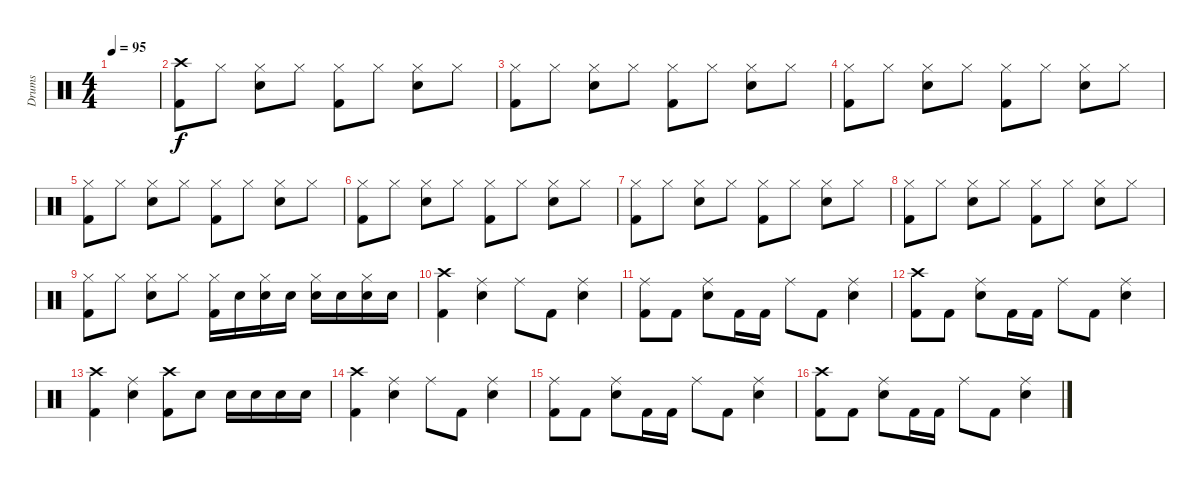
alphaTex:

\track ("Drums" "Drums") {instrument percussion}
\staff {score}
\articulation defaults
\ts (4 4)
\tempo 95
\clef neutral
\ks c
|
("Crash high (hit)" "Kick (hit) 2").8 "Hi-Hat (closed)".8 ("Hi-Hat (closed)" "Snare (hit) 2").8 "Hi-Hat (closed)".8 ("Hi-Hat (closed)" "Kick (hit) 2").8 "Hi-Hat (closed)".8 ("Hi-Hat (closed)" "Snare (hit) 2").8 "Hi-Hat (closed)".8 |
("Hi-Hat (closed)" "Kick (hit) 2").8 "Hi-Hat (closed)".8 ("Hi-Hat (closed)" "Snare (hit) 2").8 "Hi-Hat (closed)".8 ("Hi-Hat (closed)" "Kick (hit) 2").8 "Hi-Hat (closed)".8 ("Hi-Hat (closed)" "Snare (hit) 2").8 "Hi-Hat (closed)".8 |
("Hi-Hat (closed)" "Kick (hit) 2").8 "Hi-Hat (closed)".8 ("Hi-Hat (closed)" "Snare (hit) 2").8 "Hi-Hat (closed)".8 ("Hi-Hat (closed)" "Kick (hit) 2").8 "Hi-Hat (closed)".8 ("Hi-Hat (closed)" "Snare (hit) 2").8 "Hi-Hat (closed)".8 |
("Hi-Hat (closed)" "Kick (hit) 2").8 "Hi-Hat (closed)".8 ("Hi-Hat (closed)" "Snare (hit) 2").8 "Hi-Hat (closed)".8 ("Hi-Hat (closed)" "Kick (hit) 2").8 "Hi-Hat (closed)".8 ("Hi-Hat (closed)" "Snare (hit) 2").8 "Hi-Hat (closed)".8 |
("Hi-Hat (closed)" "Kick (hit) 2").8 "Hi-Hat (closed)".8 ("Hi-Hat (closed)" "Snare (hit) 2").8 "Hi-Hat (closed)".8 ("Hi-Hat (closed)" "Kick (hit) 2").8 "Hi-Hat (closed)".8 ("Hi-Hat (closed)" "Snare (hit) 2").8 "Hi-Hat (closed)".8 |
("Hi-Hat (closed)" "Kick (hit) 2").8 "Hi-Hat (closed)".8 ("Hi-Hat (closed)" "Snare (hit) 2").8 "Hi-Hat (closed)".8 ("Hi-Hat (closed)" "Kick (hit) 2").8 "Hi-Hat (closed)".8 ("Hi-Hat (closed)" "Snare (hit) 2").8 "Hi-Hat (closed)".8 |
("Hi-Hat (closed)" "Kick (hit) 2").8 "Hi-Hat (closed)".8 ("Hi-Hat (closed)" "Snare (hit) 2").8 "Hi-Hat (closed)".8 ("Hi-Hat (closed)" "Kick (hit) 2").8 "Hi-Hat (closed)".8 ("Hi-Hat (closed)" "Snare (hit) 2").8 "Hi-Hat (closed)".8 |
("Hi-Hat (closed)" "Kick (hit) 2").8 "Hi-Hat (closed)".8 ("Hi-Hat (closed)" "Snare (hit) 2").8 "Hi-Hat (closed)".8 ("Hi-Hat (closed)" "Kick (hit) 2").16 "Snare (hit) 2".16 ("Hi-Hat (closed)" "Snare (hit) 2").16 "Snare (hit) 2".16 ("Hi-Hat (closed)" "Snare (hit) 2").16 "Snare (hit) 2".16 ("Hi-Hat (closed)" "Snare (hit) 2").16 "Snare (hit) 2".16 |
("Crash high (hit)" "Kick (hit) 2").4 ("Ride (middle)" "Snare (hit) 2").4 "Ride (middle)".8 "Kick (hit) 2".8 ("Ride (middle)" "Snare (hit) 2").4 |
("Ride (middle)" "Kick (hit) 2").8 "Kick (hit) 2".8 ("Ride (middle)" "Snare (hit) 2").8 "Kick (hit) 2".16 "Kick (hit) 2".16 "Ride (middle)".8 "Kick (hit) 2".8 ("Ride (middle)" "Snare (hit) 2").4 |
("Crash high (hit)" "Kick (hit) 2").8 "Kick (hit) 2".8 ("Ride (middle)" "Snare (hit) 2").8 "Kick (hit) 2".16 "Kick (hit) 2".16 "Ride (middle)".8 "Kick (hit) 2".8 ("Ride (middle)" "Snare (hit) 2").4 |
("Crash high (hit)" "Kick (hit) 2").4 ("Ride (middle)" "Snare (hit) 2").4 ("Crash high (hit)" "Kick (hit) 2").8 "Snare (hit) 2".8 "Snare (hit) 2".16 "Snare (hit) 2".16 "Snare (hit) 2".16 "Snare (hit) 2".16 |
("Crash high (hit)" "Kick (hit) 2").4 ("Ride (middle)" "Snare (hit) 2").4 "Ride (middle)".8 "Kick (hit) 2".8 ("Ride (middle)" "Snare (hit) 2").4 |
("Ride (middle)" "Kick (hit) 2").8 "Kick (hit) 2".8 ("Ride (middle)" "Snare (hit) 2").8 "Kick (hit) 2".16 "Kick (hit) 2".16 "Ride (middle)".8 "Kick (hit) 2".8 ("Ride (middle)" "Snare (hit) 2").4 |
("Crash high (hit)" "Kick (hit) 2").8 "Kick (hit) 2".8 ("Ride (middle)" "Snare (hit) 2").8 "Kick (hit) 2".16 "Kick (hit) 2".16 "Ride (middle)".8 "Kick (hit) 2".8 ("Ride (middle)" "Snare (hit) 2").4
